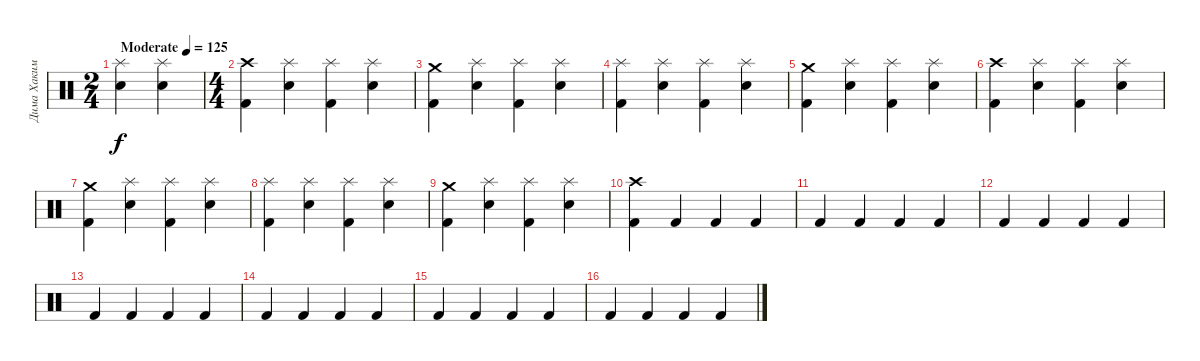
\track ("Дима Хакимов" "Дима Хаким") {instrument percussion}
\staff {score}
\articulation defaults
\ts (2 4)
\tempo (125 "Moderate")
\clef neutral
\ks c
("Splash (hit)" "Electric Snare (hit)").4{dy f} ("Splash (hit)" "Electric Snare (hit)").4 |
\ts (4 4)
("Crash high (hit)" "Kick (hit) 2").4 ("Splash (hit)" "Electric Snare (hit)").4 ("Splash (hit)" "Kick (hit) 2").4 ("Splash (hit)" "Electric Snare (hit)").4 |
("Crash medium (hit)" "Kick (hit) 2").4 ("Splash (hit)" "Electric Snare (hit)").4 ("Splash (hit)" "Kick (hit) 2").4 ("Splash (hit)" "Electric Snare (hit)").4 |
("Splash (hit)" "Kick (hit) 2").4 ("Splash (hit)" "Electric Snare (hit)").4 ("Splash (hit)" "Kick (hit) 2").4 ("Splash (hit)" "Electric Snare (hit)").4 |
("Crash medium (hit)" "Kick (hit) 2").4 ("Splash (hit)" "Electric Snare (hit)").4 ("Splash (hit)" "Kick (hit) 2").4 ("Splash (hit)" "Electric Snare (hit)").4 |
("Crash high (hit)" "Kick (hit) 2").4 ("Splash (hit)" "Electric Snare (hit)").4 ("Splash (hit)" "Kick (hit) 2").4 ("Splash (hit)" "Electric Snare (hit)").4 |
("Crash medium (hit)" "Kick (hit) 2").4 ("Splash (hit)" "Electric Snare (hit)").4 ("Splash (hit)" "Kick (hit) 2").4 ("Splash (hit)" "Electric Snare (hit)").4 |
("Splash (hit)" "Kick (hit) 2").4 ("Splash (hit)" "Electric Snare (hit)").4 ("Splash (hit)" "Kick (hit) 2").4 ("Splash (hit)" "Electric Snare (hit)").4 |
("Crash medium (hit)" "Kick (hit) 2").4 ("Splash (hit)" "Electric Snare (hit)").4 ("Splash (hit)" "Kick (hit) 2").4 ("Splash (hit)" "Electric Snare (hit)").4 |
("Crash high (hit)" "Kick (hit) 2").4 "Kick (hit) 2".4 "Kick (hit) 2".4 "Kick (hit) 2".4 |
"Kick (hit) 2".4 "Kick (hit) 2".4 "Kick (hit) 2".4 "Kick (hit) 2".4 |
"Kick (hit) 2".4 "Kick (hit) 2".4 "Kick (hit) 2".4 "Kick (hit) 2".4 |
"Kick (hit) 2".4 "Kick (hit) 2".4 "Kick (hit) 2".4 "Kick (hit) 2".4 |
"Kick (hit) 2".4 "Kick (hit) 2".4 "Kick (hit) 2".4 "Kick (hit) 2".4 |
"Kick (hit) 2".4 "Kick (hit) 2".4 "Kick (hit) 2".4 "Kick (hit) 2".4 |
"Kick (hit) 2".4 "Kick (hit) 2".4 "Kick (hit) 2".4 "Kick (hit) 2".4
